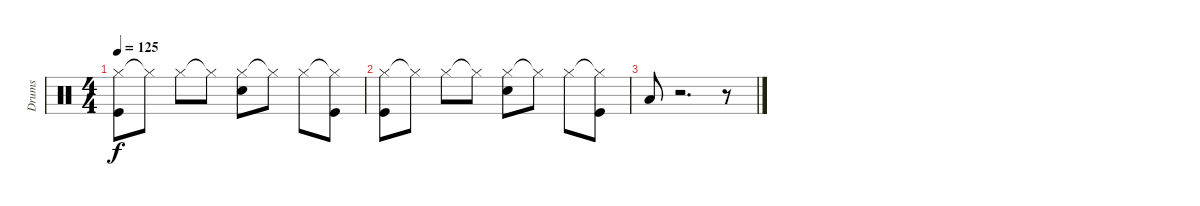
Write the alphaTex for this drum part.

\track ("Drums" "Drums") {instrument percussion}
\staff {score}
\articulation defaults
\ts (4 4)
\tempo 125
\clef neutral
\ks c
("Hi-Hat (closed)" "Kick (hit)").8{dy f} "Hi-Hat (closed)"{t}.8 "Hi-Hat (closed)".8 "Hi-Hat (closed)"{t}.8 ("Hi-Hat (closed)" "Snare (hit) 2").8 "Hi-Hat (closed)"{t}.8 "Hi-Hat (closed)".8 ("Hi-Hat (closed)"{t} "Kick (hit)").8 |
("Hi-Hat (closed)" "Kick (hit)").8 "Hi-Hat (closed)"{t}.8 "Hi-Hat (closed)".8 "Hi-Hat (closed)"{t}.8 ("Hi-Hat (closed)" "Snare (hit) 2").8 "Hi-Hat (closed)"{t}.8 "Hi-Hat (closed)".8 ("Hi-Hat (closed)"{t} "Kick (hit)").8 |
"Low Tom (hit)".8 r.2{d} r.8
